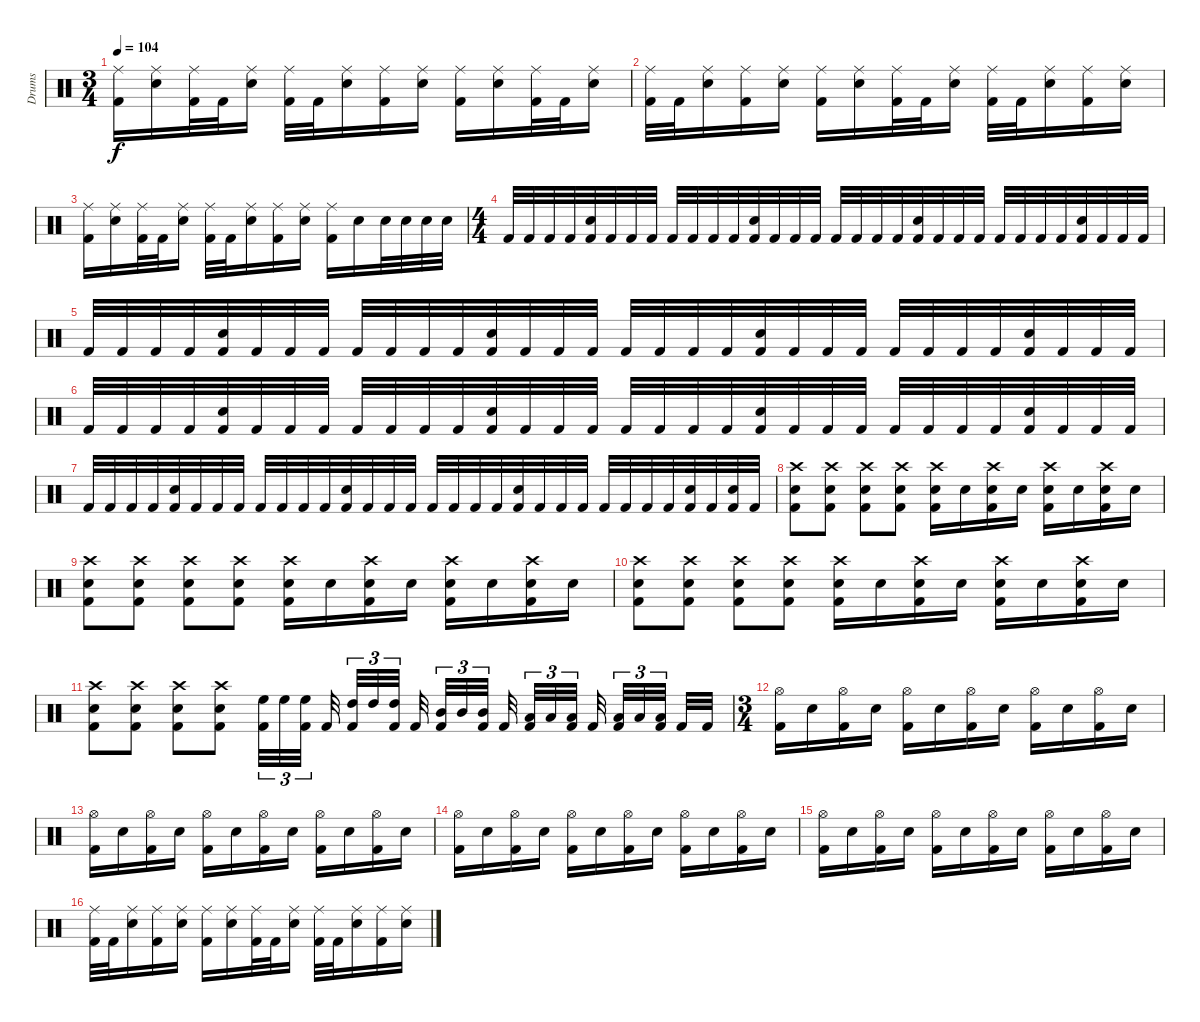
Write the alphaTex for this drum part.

\track ("Drums" "Drums") {instrument percussion}
\staff {score}
\articulation defaults
\ts (3 4)
\tempo 104
\clef neutral
\ks c
("Ride (middle)" "Kick (hit) 2").16{dy f} ("Ride (middle)" "Snare (hit) 2").16 ("Ride (middle)" "Kick (hit) 2").32 "Kick (hit) 2".32 ("Ride (middle)" "Snare (hit) 2").16 ("Ride (middle)" "Kick (hit) 2").32 "Kick (hit) 2".32 ("Ride (middle)" "Snare (hit) 2").16 ("Ride (middle)" "Kick (hit) 2").16 ("Ride (middle)" "Snare (hit) 2").16 ("Ride (middle)" "Kick (hit) 2").16 ("Ride (middle)" "Snare (hit) 2").16 ("Ride (middle)" "Kick (hit) 2").32 "Kick (hit) 2".32 ("Ride (middle)" "Snare (hit) 2").16 |
("Ride (middle)" "Kick (hit) 2").32 "Kick (hit) 2".32 ("Ride (middle)" "Snare (hit) 2").16 ("Ride (middle)" "Kick (hit) 2").16 ("Ride (middle)" "Snare (hit) 2").16 ("Ride (middle)" "Kick (hit) 2").16 ("Ride (middle)" "Snare (hit) 2").16 ("Ride (middle)" "Kick (hit) 2").32 "Kick (hit) 2".32 ("Ride (middle)" "Snare (hit) 2").16 ("Ride (middle)" "Kick (hit) 2").32 "Kick (hit) 2".32 ("Ride (middle)" "Snare (hit) 2").16 ("Ride (middle)" "Kick (hit) 2").16 ("Ride (middle)" "Snare (hit) 2").16 |
("Ride (middle)" "Kick (hit) 2").16 ("Ride (middle)" "Snare (hit) 2").16 ("Ride (middle)" "Kick (hit) 2").32 "Kick (hit) 2".32 ("Ride (middle)" "Snare (hit) 2").16 ("Ride (middle)" "Kick (hit) 2").32 "Kick (hit) 2".32 ("Ride (middle)" "Snare (hit) 2").16 ("Ride (middle)" "Kick (hit) 2").16 ("Ride (middle)" "Snare (hit) 2").16 ("Ride (middle)" "Kick (hit) 2").16 "Snare (hit) 2".16 "Snare (hit) 2".32 "Snare (hit) 2".32 "Snare (hit) 2".32 "Snare (hit) 2".32 |
\ts (4 4)
"Kick (hit) 2".32 "Kick (hit) 2".32 "Kick (hit) 2".32 "Kick (hit) 2".32 ("Snare (hit) 2" "Kick (hit) 2").32 "Kick (hit) 2".32 "Kick (hit) 2".32 "Kick (hit) 2".32 "Kick (hit) 2".32 "Kick (hit) 2".32 "Kick (hit) 2".32 "Kick (hit) 2".32 ("Snare (hit) 2" "Kick (hit) 2").32 "Kick (hit) 2".32 "Kick (hit) 2".32 "Kick (hit) 2".32 "Kick (hit) 2".32 "Kick (hit) 2".32 "Kick (hit) 2".32 "Kick (hit) 2".32 ("Snare (hit) 2" "Kick (hit) 2").32 "Kick (hit) 2".32 "Kick (hit) 2".32 "Kick (hit) 2".32 "Kick (hit) 2".32 "Kick (hit) 2".32 "Kick (hit) 2".32 "Kick (hit) 2".32 ("Snare (hit) 2" "Kick (hit) 2").32 "Kick (hit) 2".32 "Kick (hit) 2".32 "Kick (hit) 2".32 |
"Kick (hit) 2".32 "Kick (hit) 2".32 "Kick (hit) 2".32 "Kick (hit) 2".32 ("Snare (hit) 2" "Kick (hit) 2").32 "Kick (hit) 2".32 "Kick (hit) 2".32 "Kick (hit) 2".32 "Kick (hit) 2".32 "Kick (hit) 2".32 "Kick (hit) 2".32 "Kick (hit) 2".32 ("Snare (hit) 2" "Kick (hit) 2").32 "Kick (hit) 2".32 "Kick (hit) 2".32 "Kick (hit) 2".32 "Kick (hit) 2".32 "Kick (hit) 2".32 "Kick (hit) 2".32 "Kick (hit) 2".32 ("Snare (hit) 2" "Kick (hit) 2").32 "Kick (hit) 2".32 "Kick (hit) 2".32 "Kick (hit) 2".32 "Kick (hit) 2".32 "Kick (hit) 2".32 "Kick (hit) 2".32 "Kick (hit) 2".32 ("Snare (hit) 2" "Kick (hit) 2").32 "Kick (hit) 2".32 "Kick (hit) 2".32 "Kick (hit) 2".32 |
"Kick (hit) 2".32 "Kick (hit) 2".32 "Kick (hit) 2".32 "Kick (hit) 2".32 ("Snare (hit) 2" "Kick (hit) 2").32 "Kick (hit) 2".32 "Kick (hit) 2".32 "Kick (hit) 2".32 "Kick (hit) 2".32 "Kick (hit) 2".32 "Kick (hit) 2".32 "Kick (hit) 2".32 ("Snare (hit) 2" "Kick (hit) 2").32 "Kick (hit) 2".32 "Kick (hit) 2".32 "Kick (hit) 2".32 "Kick (hit) 2".32 "Kick (hit) 2".32 "Kick (hit) 2".32 "Kick (hit) 2".32 ("Snare (hit) 2" "Kick (hit) 2").32 "Kick (hit) 2".32 "Kick (hit) 2".32 "Kick (hit) 2".32 "Kick (hit) 2".32 "Kick (hit) 2".32 "Kick (hit) 2".32 "Kick (hit) 2".32 ("Snare (hit) 2" "Kick (hit) 2").32 "Kick (hit) 2".32 "Kick (hit) 2".32 "Kick (hit) 2".32 |
"Kick (hit) 2".32 "Kick (hit) 2".32 "Kick (hit) 2".32 "Kick (hit) 2".32 ("Snare (hit) 2" "Kick (hit) 2").32 "Kick (hit) 2".32 "Kick (hit) 2".32 "Kick (hit) 2".32 "Kick (hit) 2".32 "Kick (hit) 2".32 "Kick (hit) 2".32 "Kick (hit) 2".32 ("Snare (hit) 2" "Kick (hit) 2").32 "Kick (hit) 2".32 "Kick (hit) 2".32 "Kick (hit) 2".32 "Kick (hit) 2".32 "Kick (hit) 2".32 "Kick (hit) 2".32 "Kick (hit) 2".32 ("Snare (hit) 2" "Kick (hit) 2").32 "Kick (hit) 2".32 "Kick (hit) 2".32 "Kick (hit) 2".32 "Kick (hit) 2".32 "Kick (hit) 2".32 "Kick (hit) 2".32 "Kick (hit) 2".32 ("Snare (hit) 2" "Kick (hit) 2").32 "Kick (hit) 2".32 ("Snare (hit) 2" "Kick (hit) 2").32 "Kick (hit) 2".32 |
("Crash high (hit)" "Snare (hit) 2" "Kick (hit) 2").8 ("Crash high (hit)" "Snare (hit) 2" "Kick (hit) 2").8 ("Crash high (hit)" "Snare (hit) 2" "Kick (hit) 2").8 ("Crash high (hit)" "Snare (hit) 2" "Kick (hit) 2").8 ("Crash high (hit)" "Snare (hit) 2" "Kick (hit) 2").16 "Snare (hit) 2".16 ("Crash high (hit)" "Snare (hit) 2" "Kick (hit) 2").16 "Snare (hit) 2".16 ("Crash high (hit)" "Snare (hit) 2" "Kick (hit) 2").16 "Snare (hit) 2".16 ("Crash high (hit)" "Snare (hit) 2" "Kick (hit) 2").16 "Snare (hit) 2".16 |
("Crash high (hit)" "Snare (hit) 2" "Kick (hit) 2").8 ("Crash high (hit)" "Snare (hit) 2" "Kick (hit) 2").8 ("Crash high (hit)" "Snare (hit) 2" "Kick (hit) 2").8 ("Crash high (hit)" "Snare (hit) 2" "Kick (hit) 2").8 ("Crash high (hit)" "Snare (hit) 2" "Kick (hit) 2").16 "Snare (hit) 2".16 ("Crash high (hit)" "Snare (hit) 2" "Kick (hit) 2").16 "Snare (hit) 2".16 ("Crash high (hit)" "Snare (hit) 2" "Kick (hit) 2").16 "Snare (hit) 2".16 ("Crash high (hit)" "Snare (hit) 2" "Kick (hit) 2").16 "Snare (hit) 2".16 |
("Crash high (hit)" "Snare (hit) 2" "Kick (hit) 2").8 ("Crash high (hit)" "Snare (hit) 2" "Kick (hit) 2").8 ("Crash high (hit)" "Snare (hit) 2" "Kick (hit) 2").8 ("Crash high (hit)" "Snare (hit) 2" "Kick (hit) 2").8 ("Crash high (hit)" "Snare (hit) 2" "Kick (hit) 2").16 "Snare (hit) 2".16 ("Crash high (hit)" "Snare (hit) 2" "Kick (hit) 2").16 "Snare (hit) 2".16 ("Crash high (hit)" "Snare (hit) 2" "Kick (hit) 2").16 "Snare (hit) 2".16 ("Crash high (hit)" "Snare (hit) 2" "Kick (hit) 2").16 "Snare (hit) 2".16 |
("Crash high (hit)" "Snare (hit) 2" "Kick (hit) 2").8 ("Crash high (hit)" "Snare (hit) 2" "Kick (hit) 2").8 ("Crash high (hit)" "Snare (hit) 2" "Kick (hit) 2").8 ("Crash high (hit)" "Snare (hit) 2" "Kick (hit) 2").8 ("High Floor Tom (hit)" "Kick (hit) 2").32{tu (3 2)} "High Floor Tom (hit)".32{tu (3 2)} ("High Floor Tom (hit)" "Kick (hit) 2").32{tu (3 2) beam splitsecondary} "Kick (hit) 2".32{beam splitsecondary} ("High Tom (hit)" "Kick (hit) 2").32{tu (3 2)} "High Tom (hit)".32{tu (3 2)} ("High Tom (hit)" "Kick (hit) 2").32{tu (3 2) beam splitsecondary} "Kick (hit) 2".32{beam splitsecondary} ("Mid Tom (hit)" "Kick (hit) 2").32{tu (3 2)} "Mid Tom (hit)".32{tu (3 2)} ("Mid Tom (hit)" "Kick (hit) 2").32{tu (3 2)} "Kick (hit) 2".32{beam splitsecondary} ("Low Tom (hit)" "Kick (hit) 2").32{tu (3 2)} "Low Tom (hit)".32{tu (3 2)} ("Low Tom (hit)" "Kick (hit) 2").32{tu (3 2) beam splitsecondary} "Kick (hit) 2".32{beam splitsecondary} ("Low Floor Tom (hit)" "Kick (hit) 2").32{tu (3 2)} "Low Floor Tom (hit)".32{tu (3 2)} ("Low Floor Tom (hit)" "Kick (hit) 2").32{tu (3 2) beam splitsecondary} "Kick (hit) 2".32 "Kick (hit) 2".32 |
\ts (3 4)
("Hi-Hat (open)" "Kick (hit) 2").16 "Snare (hit) 2".16 ("Hi-Hat (open)" "Kick (hit) 2").16 "Snare (hit) 2".16 ("Hi-Hat (open)" "Kick (hit) 2").16 "Snare (hit) 2".16 ("Hi-Hat (open)" "Kick (hit) 2").16 "Snare (hit) 2".16 ("Hi-Hat (open)" "Kick (hit) 2").16 "Snare (hit) 2".16 ("Hi-Hat (open)" "Kick (hit) 2").16 "Snare (hit) 2".16 |
("Hi-Hat (open)" "Kick (hit) 2").16 "Snare (hit) 2".16 ("Hi-Hat (open)" "Kick (hit) 2").16 "Snare (hit) 2".16 ("Hi-Hat (open)" "Kick (hit) 2").16 "Snare (hit) 2".16 ("Hi-Hat (open)" "Kick (hit) 2").16 "Snare (hit) 2".16 ("Hi-Hat (open)" "Kick (hit) 2").16 "Snare (hit) 2".16 ("Hi-Hat (open)" "Kick (hit) 2").16 "Snare (hit) 2".16 |
("Hi-Hat (open)" "Kick (hit) 2").16 "Snare (hit) 2".16 ("Hi-Hat (open)" "Kick (hit) 2").16 "Snare (hit) 2".16 ("Hi-Hat (open)" "Kick (hit) 2").16 "Snare (hit) 2".16 ("Hi-Hat (open)" "Kick (hit) 2").16 "Snare (hit) 2".16 ("Hi-Hat (open)" "Kick (hit) 2").16 "Snare (hit) 2".16 ("Hi-Hat (open)" "Kick (hit) 2").16 "Snare (hit) 2".16 |
("Hi-Hat (open)" "Kick (hit) 2").16 "Snare (hit) 2".16 ("Hi-Hat (open)" "Kick (hit) 2").16 "Snare (hit) 2".16 ("Hi-Hat (open)" "Kick (hit) 2").16 "Snare (hit) 2".16 ("Hi-Hat (open)" "Kick (hit) 2").16 "Snare (hit) 2".16 ("Hi-Hat (open)" "Kick (hit) 2").16 "Snare (hit) 2".16 ("Hi-Hat (open)" "Kick (hit) 2").16 "Snare (hit) 2".16 |
("Ride (middle)" "Kick (hit) 2").32 "Kick (hit) 2".32 ("Ride (middle)" "Snare (hit) 2").16 ("Ride (middle)" "Kick (hit) 2").16 ("Ride (middle)" "Snare (hit) 2").16 ("Ride (middle)" "Kick (hit) 2").16 ("Ride (middle)" "Snare (hit) 2").16 ("Ride (middle)" "Kick (hit) 2").32 "Kick (hit) 2".32 ("Ride (middle)" "Snare (hit) 2").16 ("Ride (middle)" "Kick (hit) 2").32 "Kick (hit) 2".32 ("Ride (middle)" "Snare (hit) 2").16 ("Ride (middle)" "Kick (hit) 2").16 ("Ride (middle)" "Snare (hit) 2").16
